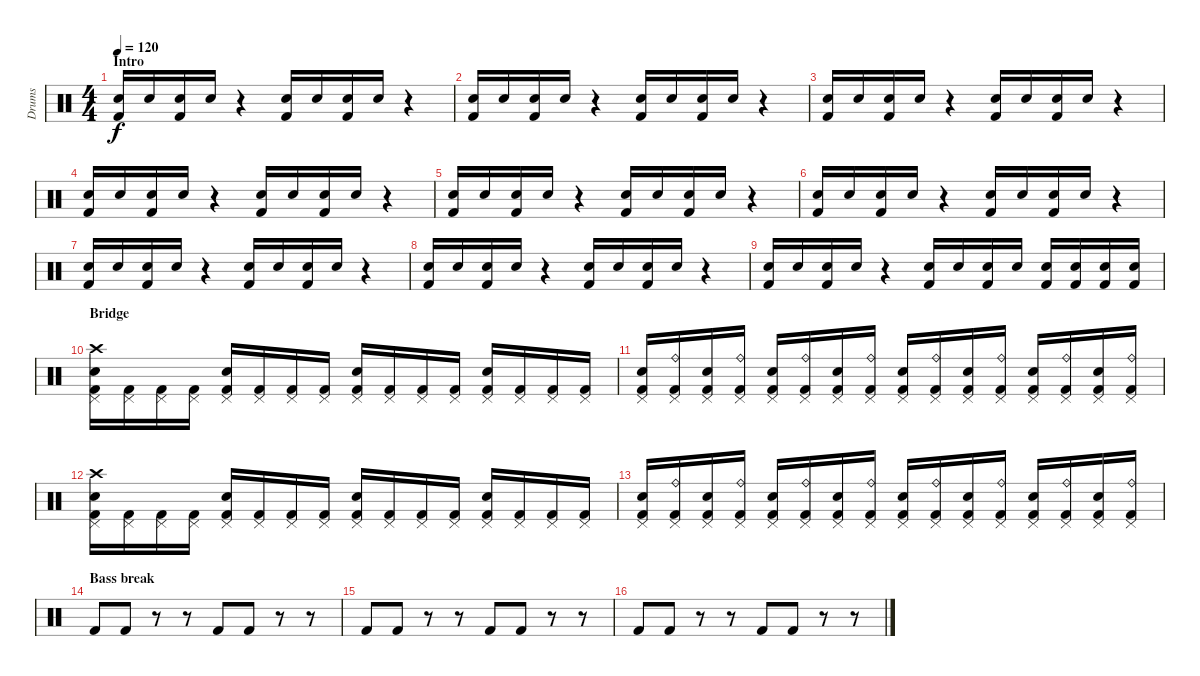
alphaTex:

\track ("Drums" "Drums") {instrument percussion}
\staff {score}
\articulation defaults
\ts (4 4)
\section ("" "Intro")
\tempo 120
\clef neutral
\ks c
("Electric Snare (hit)" "Kick (hit) 2").16{dy f} "Electric Snare (hit)".16 ("Electric Snare (hit)" "Kick (hit) 2").16 "Electric Snare (hit)".16 r.4 ("Electric Snare (hit)" "Kick (hit) 2").16 "Electric Snare (hit)".16 ("Electric Snare (hit)" "Kick (hit) 2").16 "Electric Snare (hit)".16 r.4 |
("Electric Snare (hit)" "Kick (hit) 2").16 "Electric Snare (hit)".16 ("Electric Snare (hit)" "Kick (hit) 2").16 "Electric Snare (hit)".16 r.4 ("Electric Snare (hit)" "Kick (hit) 2").16 "Electric Snare (hit)".16 ("Electric Snare (hit)" "Kick (hit) 2").16 "Electric Snare (hit)".16 r.4 |
("Electric Snare (hit)" "Kick (hit) 2").16 "Electric Snare (hit)".16 ("Electric Snare (hit)" "Kick (hit) 2").16 "Electric Snare (hit)".16 r.4 ("Electric Snare (hit)" "Kick (hit) 2").16 "Electric Snare (hit)".16 ("Electric Snare (hit)" "Kick (hit) 2").16 "Electric Snare (hit)".16 r.4 |
("Electric Snare (hit)" "Kick (hit) 2").16 "Electric Snare (hit)".16 ("Electric Snare (hit)" "Kick (hit) 2").16 "Electric Snare (hit)".16 r.4 ("Electric Snare (hit)" "Kick (hit) 2").16 "Electric Snare (hit)".16 ("Electric Snare (hit)" "Kick (hit) 2").16 "Electric Snare (hit)".16 r.4 |
("Electric Snare (hit)" "Kick (hit) 2").16 "Electric Snare (hit)".16 ("Electric Snare (hit)" "Kick (hit) 2").16 "Electric Snare (hit)".16 r.4 ("Electric Snare (hit)" "Kick (hit) 2").16 "Electric Snare (hit)".16 ("Electric Snare (hit)" "Kick (hit) 2").16 "Electric Snare (hit)".16 r.4 |
("Electric Snare (hit)" "Kick (hit) 2").16 "Electric Snare (hit)".16 ("Electric Snare (hit)" "Kick (hit) 2").16 "Electric Snare (hit)".16 r.4 ("Electric Snare (hit)" "Kick (hit) 2").16 "Electric Snare (hit)".16 ("Electric Snare (hit)" "Kick (hit) 2").16 "Electric Snare (hit)".16 r.4 |
("Electric Snare (hit)" "Kick (hit) 2").16 "Electric Snare (hit)".16 ("Electric Snare (hit)" "Kick (hit) 2").16 "Electric Snare (hit)".16 r.4 ("Electric Snare (hit)" "Kick (hit) 2").16 "Electric Snare (hit)".16 ("Electric Snare (hit)" "Kick (hit) 2").16 "Electric Snare (hit)".16 r.4 |
("Electric Snare (hit)" "Kick (hit) 2").16 "Electric Snare (hit)".16 ("Electric Snare (hit)" "Kick (hit) 2").16 "Electric Snare (hit)".16 r.4 ("Electric Snare (hit)" "Kick (hit) 2").16 "Electric Snare (hit)".16 ("Electric Snare (hit)" "Kick (hit) 2").16 "Electric Snare (hit)".16 r.4 |
("Electric Snare (hit)" "Kick (hit) 2").16 "Electric Snare (hit)".16 ("Electric Snare (hit)" "Kick (hit) 2").16 "Electric Snare (hit)".16 r.4 ("Electric Snare (hit)" "Kick (hit) 2").16 "Electric Snare (hit)".16 ("Electric Snare (hit)" "Kick (hit) 2").16 "Electric Snare (hit)".16 ("Electric Snare (hit)" "Kick (hit) 2").16 ("Electric Snare (hit)" "Kick (hit) 2").16 ("Electric Snare (hit)" "Kick (hit) 2").16 ("Electric Snare (hit)" "Kick (hit) 2").16 |
\section ("" "Bridge")
("Electric Snare (hit)" "Kick (hit) 2" "Pedal Hi-Hat (hit)" "Crash high (hit)").16 ("Kick (hit) 2" "Pedal Hi-Hat (hit)").16 ("Kick (hit) 2" "Pedal Hi-Hat (hit)").16 ("Kick (hit) 2" "Pedal Hi-Hat (hit)").16 ("Electric Snare (hit)" "Kick (hit) 2" "Pedal Hi-Hat (hit)").16 ("Kick (hit) 2" "Pedal Hi-Hat (hit)").16 ("Kick (hit) 2" "Pedal Hi-Hat (hit)").16 ("Kick (hit) 2" "Pedal Hi-Hat (hit)").16 ("Electric Snare (hit)" "Kick (hit) 2" "Pedal Hi-Hat (hit)").16 ("Kick (hit) 2" "Pedal Hi-Hat (hit)").16 ("Kick (hit) 2" "Pedal Hi-Hat (hit)").16 ("Kick (hit) 2" "Pedal Hi-Hat (hit)").16 ("Electric Snare (hit)" "Kick (hit) 2" "Pedal Hi-Hat (hit)").16 ("Kick (hit) 2" "Pedal Hi-Hat (hit)").16 ("Kick (hit) 2" "Pedal Hi-Hat (hit)").16 ("Kick (hit) 2" "Pedal Hi-Hat (hit)").16 |
("Electric Snare (hit)" "Kick (hit) 2" "Pedal Hi-Hat (hit)").16 ("Ride (bell)" "Kick (hit) 2" "Pedal Hi-Hat (hit)").16 ("Electric Snare (hit)" "Kick (hit) 2" "Pedal Hi-Hat (hit)").16 ("Ride (bell)" "Kick (hit) 2" "Pedal Hi-Hat (hit)").16 ("Electric Snare (hit)" "Kick (hit) 2" "Pedal Hi-Hat (hit)").16 ("Ride (bell)" "Kick (hit) 2" "Pedal Hi-Hat (hit)").16 ("Electric Snare (hit)" "Kick (hit) 2" "Pedal Hi-Hat (hit)").16 ("Ride (bell)" "Kick (hit) 2" "Pedal Hi-Hat (hit)").16 ("Electric Snare (hit)" "Kick (hit) 2" "Pedal Hi-Hat (hit)").16 ("Ride (bell)" "Kick (hit) 2" "Pedal Hi-Hat (hit)").16 ("Electric Snare (hit)" "Kick (hit) 2" "Pedal Hi-Hat (hit)").16 ("Ride (bell)" "Kick (hit) 2" "Pedal Hi-Hat (hit)").16 ("Electric Snare (hit)" "Kick (hit) 2" "Pedal Hi-Hat (hit)").16 ("Ride (bell)" "Kick (hit) 2" "Pedal Hi-Hat (hit)").16 ("Electric Snare (hit)" "Kick (hit) 2" "Pedal Hi-Hat (hit)").16 ("Ride (bell)" "Kick (hit) 2" "Pedal Hi-Hat (hit)").16 |
("Electric Snare (hit)" "Kick (hit) 2" "Pedal Hi-Hat (hit)" "Crash high (hit)").16 ("Kick (hit) 2" "Pedal Hi-Hat (hit)").16 ("Kick (hit) 2" "Pedal Hi-Hat (hit)").16 ("Kick (hit) 2" "Pedal Hi-Hat (hit)").16 ("Electric Snare (hit)" "Kick (hit) 2" "Pedal Hi-Hat (hit)").16 ("Kick (hit) 2" "Pedal Hi-Hat (hit)").16 ("Kick (hit) 2" "Pedal Hi-Hat (hit)").16 ("Kick (hit) 2" "Pedal Hi-Hat (hit)").16 ("Electric Snare (hit)" "Kick (hit) 2" "Pedal Hi-Hat (hit)").16 ("Kick (hit) 2" "Pedal Hi-Hat (hit)").16 ("Kick (hit) 2" "Pedal Hi-Hat (hit)").16 ("Kick (hit) 2" "Pedal Hi-Hat (hit)").16 ("Electric Snare (hit)" "Kick (hit) 2" "Pedal Hi-Hat (hit)").16 ("Kick (hit) 2" "Pedal Hi-Hat (hit)").16 ("Kick (hit) 2" "Pedal Hi-Hat (hit)").16 ("Kick (hit) 2" "Pedal Hi-Hat (hit)").16 |
("Electric Snare (hit)" "Kick (hit) 2" "Pedal Hi-Hat (hit)").16 ("Ride (bell)" "Kick (hit) 2" "Pedal Hi-Hat (hit)").16 ("Electric Snare (hit)" "Kick (hit) 2" "Pedal Hi-Hat (hit)").16 ("Ride (bell)" "Kick (hit) 2" "Pedal Hi-Hat (hit)").16 ("Electric Snare (hit)" "Kick (hit) 2" "Pedal Hi-Hat (hit)").16 ("Ride (bell)" "Kick (hit) 2" "Pedal Hi-Hat (hit)").16 ("Electric Snare (hit)" "Kick (hit) 2" "Pedal Hi-Hat (hit)").16 ("Ride (bell)" "Kick (hit) 2" "Pedal Hi-Hat (hit)").16 ("Electric Snare (hit)" "Kick (hit) 2" "Pedal Hi-Hat (hit)").16 ("Ride (bell)" "Kick (hit) 2" "Pedal Hi-Hat (hit)").16 ("Electric Snare (hit)" "Kick (hit) 2" "Pedal Hi-Hat (hit)").16 ("Ride (bell)" "Kick (hit) 2" "Pedal Hi-Hat (hit)").16 ("Electric Snare (hit)" "Kick (hit) 2" "Pedal Hi-Hat (hit)").16 ("Ride (bell)" "Kick (hit) 2" "Pedal Hi-Hat (hit)").16 ("Electric Snare (hit)" "Kick (hit) 2" "Pedal Hi-Hat (hit)").16 ("Ride (bell)" "Kick (hit) 2" "Pedal Hi-Hat (hit)").16 |
\section ("" "Bass break")
"Kick (hit) 2".8 "Kick (hit) 2".8 r.8 r.8 "Kick (hit) 2".8 "Kick (hit) 2".8 r.8 r.8 |
"Kick (hit) 2".8 "Kick (hit) 2".8 r.8 r.8 "Kick (hit) 2".8 "Kick (hit) 2".8 r.8 r.8 |
"Kick (hit) 2".8 "Kick (hit) 2".8 r.8 r.8 "Kick (hit) 2".8 "Kick (hit) 2".8 r.8 r.8
